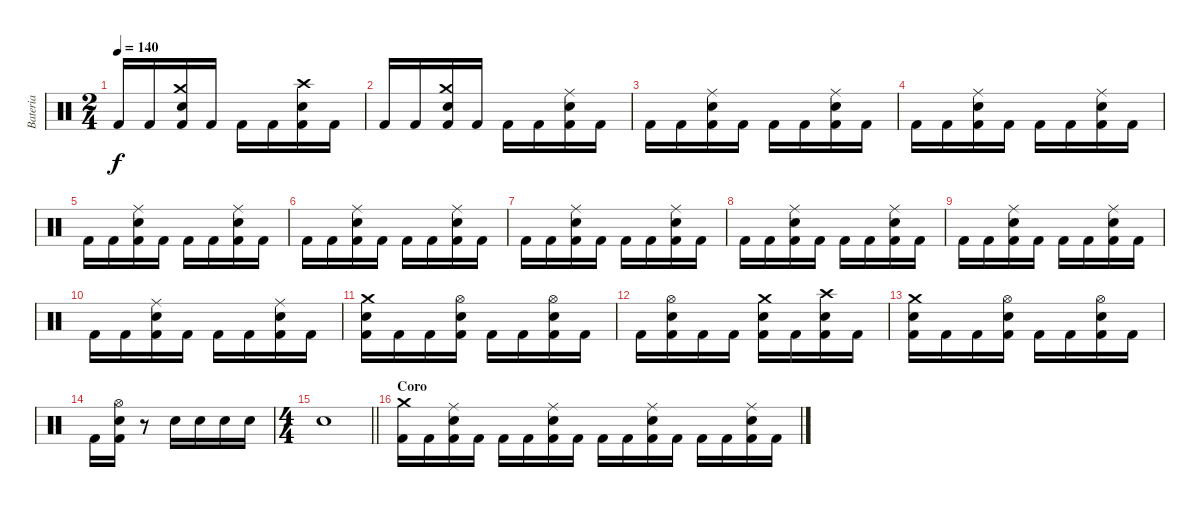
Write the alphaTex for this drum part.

\track ("Bateria" "Bateria") {instrument percussion}
\staff {score}
\articulation defaults
\ts (2 4)
\tempo 140
\clef neutral
\ks c "Kick (hit) 2".16{dy f} "Kick (hit) 2".16
("Crash medium (hit)" "Snare (hit) 2" "Kick (hit) 2").16 "Kick (hit) 2".16 "Kick (hit) 2".16 "Kick (hit) 2".16 ("Crash high (hit)" "Snare (hit) 2" "Kick (hit) 2").16 "Kick (hit) 2".16 |
"Kick (hit) 2".16 "Kick (hit) 2".16 ("Crash medium (hit)" "Snare (hit) 2" "Kick (hit) 2").16 "Kick (hit) 2".16 "Kick (hit) 2".16 "Kick (hit) 2".16 ("Ride (middle)" "Snare (hit) 2" "Kick (hit) 2").16 "Kick (hit) 2".16 |
"Kick (hit) 2".16 "Kick (hit) 2".16 ("Ride (middle)" "Snare (hit) 2" "Kick (hit) 2").16 "Kick (hit) 2".16 "Kick (hit) 2".16 "Kick (hit) 2".16 ("Ride (middle)" "Snare (hit) 2" "Kick (hit) 2").16 "Kick (hit) 2".16 |
"Kick (hit) 2".16 "Kick (hit) 2".16 ("Ride (middle)" "Snare (hit) 2" "Kick (hit) 2").16 "Kick (hit) 2".16 "Kick (hit) 2".16 "Kick (hit) 2".16 ("Ride (middle)" "Snare (hit) 2" "Kick (hit) 2").16 "Kick (hit) 2".16 |
"Kick (hit) 2".16 "Kick (hit) 2".16 ("Ride (middle)" "Snare (hit) 2" "Kick (hit) 2").16 "Kick (hit) 2".16 "Kick (hit) 2".16 "Kick (hit) 2".16 ("Ride (middle)" "Snare (hit) 2" "Kick (hit) 2").16 "Kick (hit) 2".16 |
"Kick (hit) 2".16 "Kick (hit) 2".16 ("Ride (middle)" "Snare (hit) 2" "Kick (hit) 2").16 "Kick (hit) 2".16 "Kick (hit) 2".16 "Kick (hit) 2".16 ("Ride (middle)" "Snare (hit) 2" "Kick (hit) 2").16 "Kick (hit) 2".16 |
"Kick (hit) 2".16 "Kick (hit) 2".16 ("Ride (middle)" "Snare (hit) 2" "Kick (hit) 2").16 "Kick (hit) 2".16 "Kick (hit) 2".16 "Kick (hit) 2".16 ("Ride (middle)" "Snare (hit) 2" "Kick (hit) 2").16 "Kick (hit) 2".16 |
"Kick (hit) 2".16 "Kick (hit) 2".16 ("Ride (middle)" "Snare (hit) 2" "Kick (hit) 2").16 "Kick (hit) 2".16 "Kick (hit) 2".16 "Kick (hit) 2".16 ("Ride (middle)" "Snare (hit) 2" "Kick (hit) 2").16 "Kick (hit) 2".16 |
"Kick (hit) 2".16 "Kick (hit) 2".16 ("Ride (middle)" "Snare (hit) 2" "Kick (hit) 2").16 "Kick (hit) 2".16 "Kick (hit) 2".16 "Kick (hit) 2".16 ("Ride (middle)" "Snare (hit) 2" "Kick (hit) 2").16 "Kick (hit) 2".16 |
"Kick (hit) 2".16 "Kick (hit) 2".16 ("Ride (middle)" "Snare (hit) 2" "Kick (hit) 2").16 "Kick (hit) 2".16 "Kick (hit) 2".16 "Kick (hit) 2".16 ("Ride (middle)" "Snare (hit) 2" "Kick (hit) 2").16 "Kick (hit) 2".16 |
("Crash medium (hit)" "Snare (hit) 2" "Kick (hit) 2").16 "Kick (hit) 2".16 "Kick (hit) 2".16 ("Hi-Hat (open)" "Snare (hit) 2" "Kick (hit) 2").16 "Kick (hit) 2".16 "Kick (hit) 2".16 ("Hi-Hat (open)" "Snare (hit) 2" "Kick (hit) 2").16 "Kick (hit) 2".16 |
"Kick (hit) 2".16 ("Hi-Hat (open)" "Snare (hit) 2" "Kick (hit) 2").16 "Kick (hit) 2".16 "Kick (hit) 2".16 ("Crash medium (hit)" "Snare (hit) 2" "Kick (hit) 2").16 "Kick (hit) 2".16 ("Crash high (hit)" "Snare (hit) 2" "Kick (hit) 2").16 "Kick (hit) 2".16 |
("Crash medium (hit)" "Snare (hit) 2" "Kick (hit) 2").16 "Kick (hit) 2".16 "Kick (hit) 2".16 ("Hi-Hat (open)" "Snare (hit) 2" "Kick (hit) 2").16 "Kick (hit) 2".16 "Kick (hit) 2".16 ("Hi-Hat (open)" "Snare (hit) 2" "Kick (hit) 2").16 "Kick (hit) 2".16 |
"Kick (hit) 2".16 ("Hi-Hat (open)" "Snare (hit) 2" "Kick (hit) 2").16 r.8 "Snare (hit) 2".16 "Snare (hit) 2".16 "Snare (hit) 2".16 "Snare (hit) 2".16 |
\ts (4 4)
\barLineRight lightlight "Snare (hit) 2".1
|
\section ("" "Coro")
("Crash medium (hit)" "Kick (hit) 2").16 "Kick (hit) 2".16 ("Ride (middle)" "Snare (hit) 2" "Kick (hit) 2").16 "Kick (hit) 2".16 "Kick (hit) 2".16 "Kick (hit) 2".16 ("Ride (middle)" "Snare (hit) 2" "Kick (hit) 2").16 "Kick (hit) 2".16 "Kick (hit) 2".16 "Kick (hit) 2".16 ("Ride (middle)" "Snare (hit) 2" "Kick (hit) 2").16 "Kick (hit) 2".16 "Kick (hit) 2".16 "Kick (hit) 2".16 ("Ride (middle)" "Snare (hit) 2" "Kick (hit) 2").16 "Kick (hit) 2".16
